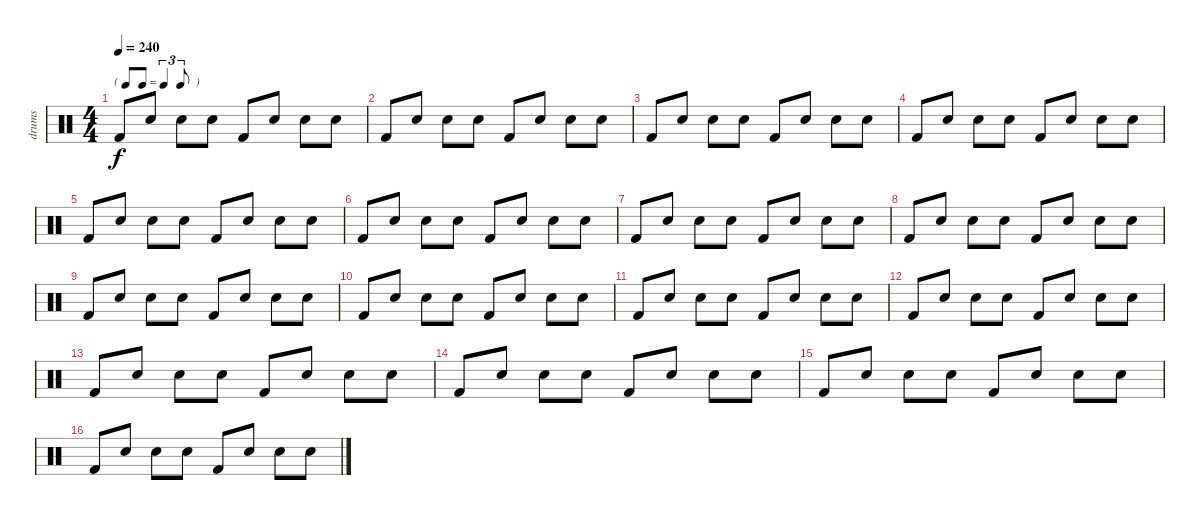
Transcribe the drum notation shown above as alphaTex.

\track ("drums" "drums") {instrument percussion}
\staff {score}
\articulation defaults
\ts (4 4)
\tf triplet8th
\tempo 240
\clef neutral
\ks c "Kick (hit) 2".8{dy f} "Electric Snare (hit)"{x}.8 "Electric Snare (hit)".8 "Electric Snare (hit)"{x}.8 "Kick (hit) 2".8 "Electric Snare (hit)"{x}.8 "Electric Snare (hit)".8 "Electric Snare (hit)"{x}.8
|
"Kick (hit) 2".8 "Electric Snare (hit)"{x}.8 "Electric Snare (hit)".8 "Electric Snare (hit)"{x}.8 "Kick (hit) 2".8 "Electric Snare (hit)"{x}.8 "Electric Snare (hit)".8 "Electric Snare (hit)"{x}.8 |
"Kick (hit) 2".8 "Electric Snare (hit)"{x}.8 "Electric Snare (hit)".8 "Electric Snare (hit)"{x}.8 "Kick (hit) 2".8 "Electric Snare (hit)"{x}.8 "Electric Snare (hit)".8 "Electric Snare (hit)"{x}.8 |
"Kick (hit) 2".8 "Electric Snare (hit)"{x}.8 "Electric Snare (hit)".8 "Electric Snare (hit)"{x}.8 "Kick (hit) 2".8 "Electric Snare (hit)"{x}.8 "Electric Snare (hit)".8 "Electric Snare (hit)"{x}.8 |
"Kick (hit) 2".8 "Electric Snare (hit)"{x}.8 "Electric Snare (hit)".8 "Electric Snare (hit)"{x}.8 "Kick (hit) 2".8 "Electric Snare (hit)"{x}.8 "Electric Snare (hit)".8 "Electric Snare (hit)"{x}.8 |
"Kick (hit) 2".8 "Electric Snare (hit)"{x}.8 "Electric Snare (hit)".8 "Electric Snare (hit)"{x}.8 "Kick (hit) 2".8 "Electric Snare (hit)"{x}.8 "Electric Snare (hit)".8 "Electric Snare (hit)"{x}.8 |
"Kick (hit) 2".8 "Electric Snare (hit)"{x}.8 "Electric Snare (hit)".8 "Electric Snare (hit)"{x}.8 "Kick (hit) 2".8 "Electric Snare (hit)"{x}.8 "Electric Snare (hit)".8 "Electric Snare (hit)"{x}.8 |
"Kick (hit) 2".8 "Electric Snare (hit)"{x}.8 "Electric Snare (hit)".8 "Electric Snare (hit)"{x}.8 "Kick (hit) 2".8 "Electric Snare (hit)"{x}.8 "Electric Snare (hit)".8 "Electric Snare (hit)"{x}.8 |
"Kick (hit) 2".8 "Electric Snare (hit)"{x}.8 "Electric Snare (hit)".8 "Electric Snare (hit)"{x}.8 "Kick (hit) 2".8 "Electric Snare (hit)"{x}.8 "Electric Snare (hit)".8 "Electric Snare (hit)"{x}.8 |
"Kick (hit) 2".8 "Electric Snare (hit)"{x}.8 "Electric Snare (hit)".8 "Electric Snare (hit)"{x}.8 "Kick (hit) 2".8 "Electric Snare (hit)"{x}.8 "Electric Snare (hit)".8 "Electric Snare (hit)"{x}.8 |
"Kick (hit) 2".8 "Electric Snare (hit)"{x}.8 "Electric Snare (hit)".8 "Electric Snare (hit)"{x}.8 "Kick (hit) 2".8 "Electric Snare (hit)"{x}.8 "Electric Snare (hit)".8 "Electric Snare (hit)"{x}.8 |
"Kick (hit) 2".8 "Electric Snare (hit)"{x}.8 "Electric Snare (hit)".8 "Electric Snare (hit)"{x}.8 "Kick (hit) 2".8 "Electric Snare (hit)"{x}.8 "Electric Snare (hit)".8 "Electric Snare (hit)"{x}.8 |
"Kick (hit) 2".8 "Electric Snare (hit)"{x}.8 "Electric Snare (hit)".8 "Electric Snare (hit)"{x}.8 "Kick (hit) 2".8 "Electric Snare (hit)"{x}.8 "Electric Snare (hit)".8 "Electric Snare (hit)"{x}.8 |
"Kick (hit) 2".8 "Electric Snare (hit)"{x}.8 "Electric Snare (hit)".8 "Electric Snare (hit)"{x}.8 "Kick (hit) 2".8 "Electric Snare (hit)"{x}.8 "Electric Snare (hit)".8 "Electric Snare (hit)"{x}.8 |
"Kick (hit) 2".8 "Electric Snare (hit)"{x}.8 "Electric Snare (hit)".8 "Electric Snare (hit)"{x}.8 "Kick (hit) 2".8 "Electric Snare (hit)"{x}.8 "Electric Snare (hit)".8 "Electric Snare (hit)"{x}.8 |
"Kick (hit) 2".8 "Electric Snare (hit)"{x}.8 "Electric Snare (hit)".8 "Electric Snare (hit)"{x}.8 "Kick (hit) 2".8 "Electric Snare (hit)"{x}.8 "Electric Snare (hit)".8 "Electric Snare (hit)"{x}.8
